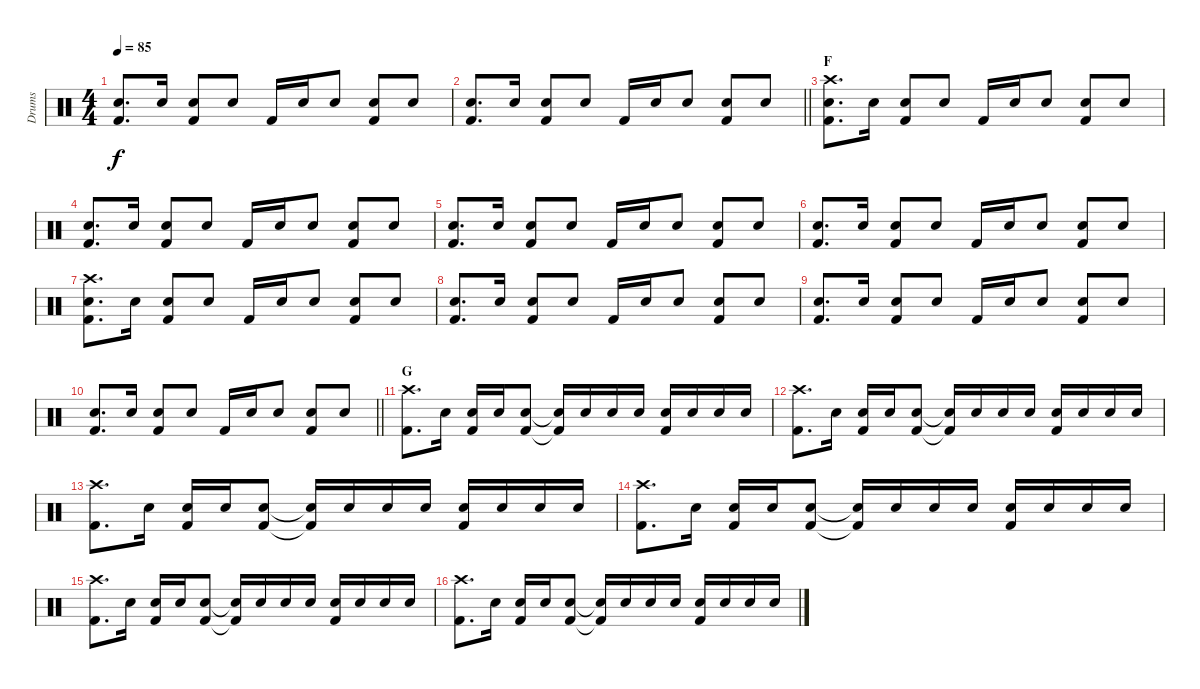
\track ("Drums" "Drums") {instrument percussion}
\staff {score}
\articulation defaults
\ts (4 4)
\tempo 85
\clef neutral
\ks c
("Electric Snare (hit)" "Kick (hit) 2").8{d dy f} "Electric Snare (hit)".16 ("Electric Snare (hit)" "Kick (hit) 2").8 "Electric Snare (hit)".8 "Kick (hit) 2".16 "Electric Snare (hit)".16 "Electric Snare (hit)".8 ("Electric Snare (hit)" "Kick (hit) 2").8 "Electric Snare (hit)".8 |
\barLineRight lightlight
("Electric Snare (hit)" "Kick (hit) 2").8{d} "Electric Snare (hit)".16 ("Electric Snare (hit)" "Kick (hit) 2").8 "Electric Snare (hit)".8 "Kick (hit) 2".16 "Electric Snare (hit)".16 "Electric Snare (hit)".8 ("Electric Snare (hit)" "Kick (hit) 2").8 "Electric Snare (hit)".8 |
\section ("" "F")
("Crash high (hit)" "Electric Snare (hit)" "Kick (hit) 2").8{d} "Electric Snare (hit)".16 ("Electric Snare (hit)" "Kick (hit) 2").8 "Electric Snare (hit)".8 "Kick (hit) 2".16 "Electric Snare (hit)".16 "Electric Snare (hit)".8 ("Electric Snare (hit)" "Kick (hit) 2").8 "Electric Snare (hit)".8 |
("Electric Snare (hit)" "Kick (hit) 2").8{d} "Electric Snare (hit)".16 ("Electric Snare (hit)" "Kick (hit) 2").8 "Electric Snare (hit)".8 "Kick (hit) 2".16 "Electric Snare (hit)".16 "Electric Snare (hit)".8 ("Electric Snare (hit)" "Kick (hit) 2").8 "Electric Snare (hit)".8 |
("Electric Snare (hit)" "Kick (hit) 2").8{d} "Electric Snare (hit)".16 ("Electric Snare (hit)" "Kick (hit) 2").8 "Electric Snare (hit)".8 "Kick (hit) 2".16 "Electric Snare (hit)".16 "Electric Snare (hit)".8 ("Electric Snare (hit)" "Kick (hit) 2").8 "Electric Snare (hit)".8 |
("Electric Snare (hit)" "Kick (hit) 2").8{d} "Electric Snare (hit)".16 ("Electric Snare (hit)" "Kick (hit) 2").8 "Electric Snare (hit)".8 "Kick (hit) 2".16 "Electric Snare (hit)".16 "Electric Snare (hit)".8 ("Electric Snare (hit)" "Kick (hit) 2").8 "Electric Snare (hit)".8 |
("Crash high (hit)" "Electric Snare (hit)" "Kick (hit) 2").8{d} "Electric Snare (hit)".16 ("Electric Snare (hit)" "Kick (hit) 2").8 "Electric Snare (hit)".8 "Kick (hit) 2".16 "Electric Snare (hit)".16 "Electric Snare (hit)".8 ("Electric Snare (hit)" "Kick (hit) 2").8 "Electric Snare (hit)".8 |
("Electric Snare (hit)" "Kick (hit) 2").8{d} "Electric Snare (hit)".16 ("Electric Snare (hit)" "Kick (hit) 2").8 "Electric Snare (hit)".8 "Kick (hit) 2".16 "Electric Snare (hit)".16 "Electric Snare (hit)".8 ("Electric Snare (hit)" "Kick (hit) 2").8 "Electric Snare (hit)".8 |
("Electric Snare (hit)" "Kick (hit) 2").8{d} "Electric Snare (hit)".16 ("Electric Snare (hit)" "Kick (hit) 2").8 "Electric Snare (hit)".8 "Kick (hit) 2".16 "Electric Snare (hit)".16 "Electric Snare (hit)".8 ("Electric Snare (hit)" "Kick (hit) 2").8 "Electric Snare (hit)".8 |
\barLineRight lightlight
("Electric Snare (hit)" "Kick (hit) 2").8{d} "Electric Snare (hit)".16 ("Electric Snare (hit)" "Kick (hit) 2").8 "Electric Snare (hit)".8 "Kick (hit) 2".16 "Electric Snare (hit)".16 "Electric Snare (hit)".8 ("Electric Snare (hit)" "Kick (hit) 2").8 "Electric Snare (hit)".8 |
\section ("" "G")
("Crash high (hit)" "Kick (hit) 2").8{d} "Electric Snare (hit)".16 ("Electric Snare (hit)" "Kick (hit) 2").16 "Electric Snare (hit)".16 ("Electric Snare (hit)" "Kick (hit) 2").8 ("Snare (hit)"{t} "Kick (hit) 2"{t}).16 "Electric Snare (hit)".16 "Electric Snare (hit)".16 "Electric Snare (hit)".16 ("Electric Snare (hit)" "Kick (hit) 2").16 "Electric Snare (hit)".16 "Electric Snare (hit)".16 "Electric Snare (hit)".16 |
("Crash high (hit)" "Kick (hit) 2").8{d} "Electric Snare (hit)".16 ("Electric Snare (hit)" "Kick (hit) 2").16 "Electric Snare (hit)".16 ("Electric Snare (hit)" "Kick (hit) 2").8 ("Snare (hit)"{t} "Kick (hit) 2"{t}).16 "Electric Snare (hit)".16 "Electric Snare (hit)".16 "Electric Snare (hit)".16 ("Electric Snare (hit)" "Kick (hit) 2").16 "Electric Snare (hit)".16 "Electric Snare (hit)".16 "Electric Snare (hit)".16 |
("Crash high (hit)" "Kick (hit) 2").8{d} "Electric Snare (hit)".16 ("Electric Snare (hit)" "Kick (hit) 2").16 "Electric Snare (hit)".16 ("Electric Snare (hit)" "Kick (hit) 2").8 ("Snare (hit)"{t} "Kick (hit) 2"{t}).16 "Electric Snare (hit)".16 "Electric Snare (hit)".16 "Electric Snare (hit)".16 ("Electric Snare (hit)" "Kick (hit) 2").16 "Electric Snare (hit)".16 "Electric Snare (hit)".16 "Electric Snare (hit)".16 |
("Crash high (hit)" "Kick (hit) 2").8{d} "Electric Snare (hit)".16 ("Electric Snare (hit)" "Kick (hit) 2").16 "Electric Snare (hit)".16 ("Electric Snare (hit)" "Kick (hit) 2").8 ("Snare (hit)"{t} "Kick (hit) 2"{t}).16 "Electric Snare (hit)".16 "Electric Snare (hit)".16 "Electric Snare (hit)".16 ("Electric Snare (hit)" "Kick (hit) 2").16 "Electric Snare (hit)".16 "Electric Snare (hit)".16 "Electric Snare (hit)".16 |
("Crash high (hit)" "Kick (hit) 2").8{d} "Electric Snare (hit)".16 ("Electric Snare (hit)" "Kick (hit) 2").16 "Electric Snare (hit)".16 ("Electric Snare (hit)" "Kick (hit) 2").8 ("Snare (hit)"{t} "Kick (hit) 2"{t}).16 "Electric Snare (hit)".16 "Electric Snare (hit)".16 "Electric Snare (hit)".16 ("Electric Snare (hit)" "Kick (hit) 2").16 "Electric Snare (hit)".16 "Electric Snare (hit)".16 "Electric Snare (hit)".16 |
("Crash high (hit)" "Kick (hit) 2").8{d} "Electric Snare (hit)".16 ("Electric Snare (hit)" "Kick (hit) 2").16 "Electric Snare (hit)".16 ("Electric Snare (hit)" "Kick (hit) 2").8 ("Snare (hit)"{t} "Kick (hit) 2"{t}).16 "Electric Snare (hit)".16 "Electric Snare (hit)".16 "Electric Snare (hit)".16 ("Electric Snare (hit)" "Kick (hit) 2").16 "Electric Snare (hit)".16 "Electric Snare (hit)".16 "Electric Snare (hit)".16
